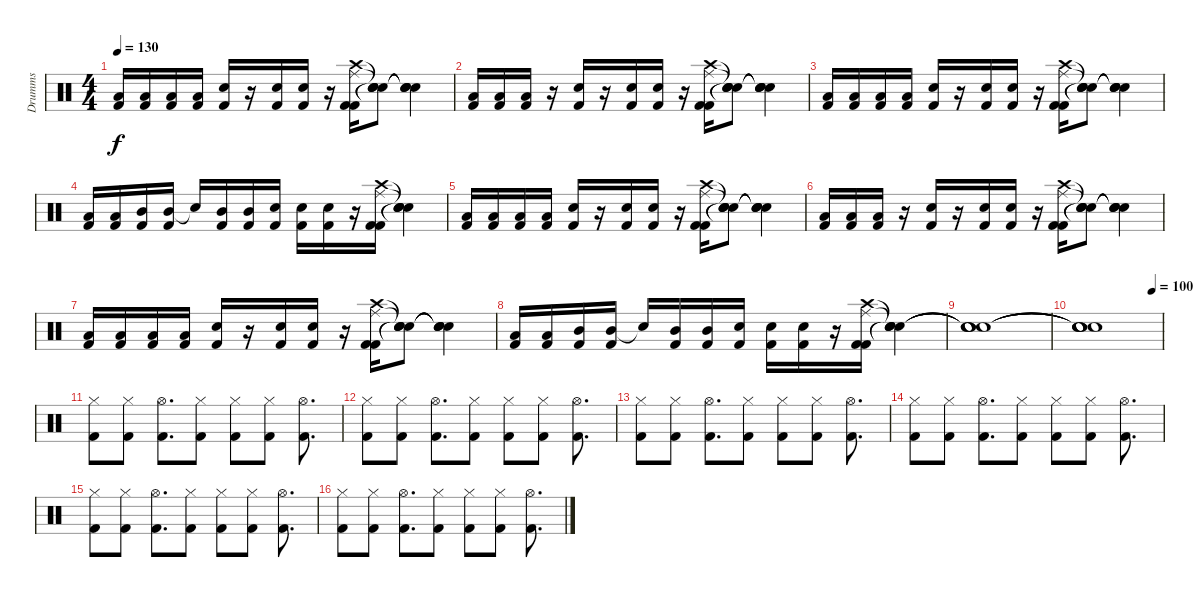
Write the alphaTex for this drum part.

\track ("Drumms" "Drumms") {instrument percussion}
\staff {score}
\articulation defaults
\ts (4 4)
\tempo 130
\clef neutral
\ks c
("Low Floor Tom (hit)" "Kick (hit) 2").16{dy f} ("Low Floor Tom (hit)" "Kick (hit) 2").16 ("Low Floor Tom (hit)" "Kick (hit) 2").16 ("Low Floor Tom (hit)" "Kick (hit) 2").16 ("Snare (hit) 2" "Kick (hit) 2").16 r.16 ("Snare (hit) 2" "Kick (hit) 2").16 ("Snare (hit) 2" "Kick (hit) 2").16 r.16 ("Crash high (hit)" "Ride (middle)" "Kick (hit) 2" "Kick (hit) 2").16 ("Snare (hit)"{t} "Snare (hit)"{t} "Snare (hit)"{t} "Snare (hit)"{t}).8 ("Snare (hit)"{t} "Snare (hit)"{t} "Snare (hit)"{t} "Snare (hit)"{t}).4 |
("Low Floor Tom (hit)" "Kick (hit) 2").16 ("Low Floor Tom (hit)" "Kick (hit) 2").16 ("Low Floor Tom (hit)" "Kick (hit) 2").16 r.16 ("Snare (hit) 2" "Kick (hit) 2").16 r.16 ("Snare (hit) 2" "Kick (hit) 2").16 ("Snare (hit) 2" "Kick (hit) 2").16 r.16 ("Crash high (hit)" "Ride (middle)" "Kick (hit) 2" "Kick (hit) 2").16 ("Snare (hit)"{t} "Snare (hit)"{t} "Snare (hit)"{t} "Snare (hit)"{t}).8 ("Snare (hit)"{t} "Snare (hit)"{t} "Snare (hit)"{t} "Snare (hit)"{t}).4 |
("Low Floor Tom (hit)" "Kick (hit) 2").16 ("Low Floor Tom (hit)" "Kick (hit) 2").16 ("Low Floor Tom (hit)" "Kick (hit) 2").16 ("Low Floor Tom (hit)" "Kick (hit) 2").16 ("Snare (hit) 2" "Kick (hit) 2").16 r.16 ("Snare (hit) 2" "Kick (hit) 2").16 ("Snare (hit) 2" "Kick (hit) 2").16 r.16 ("Crash high (hit)" "Ride (middle)" "Kick (hit) 2" "Kick (hit) 2").16 ("Snare (hit)"{t} "Snare (hit)"{t} "Snare (hit)"{t} "Snare (hit)"{t}).8 ("Snare (hit)"{t} "Snare (hit)"{t} "Snare (hit)"{t} "Snare (hit)"{t}).4 |
("Low Floor Tom (hit)" "Kick (hit) 2").16 ("Low Floor Tom (hit)" "Kick (hit) 2").16 ("Mid Tom (hit)" "Kick (hit) 2").16 ("Mid Tom (hit)" "Kick (hit) 2").16 "Snare (hit)"{t}.16 ("Mid Tom (hit)" "Kick (hit) 2").16 ("Mid Tom (hit)" "Kick (hit) 2").16 ("Snare (hit) 2" "Kick (hit) 2").16 ("Snare (hit) 2" "Kick (hit) 2").16 ("Snare (hit) 2" "Kick (hit) 2").16 r.16 ("Crash high (hit)" "Ride (middle)" "Kick (hit) 2" "Kick (hit) 2").16 ("Snare (hit)"{t} "Snare (hit)"{t} "Snare (hit)"{t} "Snare (hit)"{t}).4 |
("Low Floor Tom (hit)" "Kick (hit) 2").16 ("Low Floor Tom (hit)" "Kick (hit) 2").16 ("Low Floor Tom (hit)" "Kick (hit) 2").16 ("Low Floor Tom (hit)" "Kick (hit) 2").16 ("Snare (hit) 2" "Kick (hit) 2").16 r.16 ("Snare (hit) 2" "Kick (hit) 2").16 ("Snare (hit) 2" "Kick (hit) 2").16 r.16 ("Crash high (hit)" "Ride (middle)" "Kick (hit) 2" "Kick (hit) 2").16 ("Snare (hit)"{t} "Snare (hit)"{t} "Snare (hit)"{t} "Snare (hit)"{t}).8 ("Snare (hit)"{t} "Snare (hit)"{t} "Snare (hit)"{t} "Snare (hit)"{t}).4 |
("Low Floor Tom (hit)" "Kick (hit) 2").16 ("Low Floor Tom (hit)" "Kick (hit) 2").16 ("Low Floor Tom (hit)" "Kick (hit) 2").16 r.16 ("Snare (hit) 2" "Kick (hit) 2").16 r.16 ("Snare (hit) 2" "Kick (hit) 2").16 ("Snare (hit) 2" "Kick (hit) 2").16 r.16 ("Crash high (hit)" "Ride (middle)" "Kick (hit) 2" "Kick (hit) 2").16 ("Snare (hit)"{t} "Snare (hit)"{t} "Snare (hit)"{t} "Snare (hit)"{t}).8 ("Snare (hit)"{t} "Snare (hit)"{t} "Snare (hit)"{t} "Snare (hit)"{t}).4 |
("Low Floor Tom (hit)" "Kick (hit) 2").16 ("Low Floor Tom (hit)" "Kick (hit) 2").16 ("Low Floor Tom (hit)" "Kick (hit) 2").16 ("Low Floor Tom (hit)" "Kick (hit) 2").16 ("Snare (hit) 2" "Kick (hit) 2").16 r.16 ("Snare (hit) 2" "Kick (hit) 2").16 ("Snare (hit) 2" "Kick (hit) 2").16 r.16 ("Crash high (hit)" "Ride (middle)" "Kick (hit) 2" "Kick (hit) 2").16 ("Snare (hit)"{t} "Snare (hit)"{t} "Snare (hit)"{t} "Snare (hit)"{t}).8 ("Snare (hit)"{t} "Snare (hit)"{t} "Snare (hit)"{t} "Snare (hit)"{t}).4 |
("Low Floor Tom (hit)" "Kick (hit) 2").16 ("Low Floor Tom (hit)" "Kick (hit) 2").16 ("Mid Tom (hit)" "Kick (hit) 2").16 ("Mid Tom (hit)" "Kick (hit) 2").16 "Snare (hit)"{t}.16 ("Mid Tom (hit)" "Kick (hit) 2").16 ("Mid Tom (hit)" "Kick (hit) 2").16 ("Snare (hit) 2" "Kick (hit) 2").16 ("Snare (hit) 2" "Kick (hit) 2").16 ("Snare (hit) 2" "Kick (hit) 2").16 r.16 ("Crash high (hit)" "Ride (middle)" "Kick (hit) 2" "Kick (hit) 2").16 ("Snare (hit)"{t} "Snare (hit)"{t} "Snare (hit)"{t} "Snare (hit)"{t}).4 |
("Snare (hit)"{t} "Snare (hit)"{t} "Snare (hit)"{t} "Snare (hit)"{t}).1 |
\tempo (100 0.875)
("Snare (hit)"{t} "Snare (hit)"{t} "Snare (hit)"{t} "Snare (hit)"{t}).1 |
("Hi-Hat (closed)" "Kick (hit) 2").8 ("Hi-Hat (closed)" "Kick (hit) 2").8 ("Hi-Hat (open)" "Kick (hit) 2").8{d} ("Hi-Hat (closed)" "Kick (hit) 2").8 ("Hi-Hat (closed)" "Kick (hit) 2").8 ("Hi-Hat (closed)" "Kick (hit) 2").8 ("Hi-Hat (open)" "Kick (hit) 2").8{d} |
("Hi-Hat (closed)" "Kick (hit) 2").8 ("Hi-Hat (closed)" "Kick (hit) 2").8 ("Hi-Hat (open)" "Kick (hit) 2").8{d} ("Hi-Hat (closed)" "Kick (hit) 2").8 ("Hi-Hat (closed)" "Kick (hit) 2").8 ("Hi-Hat (closed)" "Kick (hit) 2").8 ("Hi-Hat (open)" "Kick (hit) 2").8{d} |
("Hi-Hat (closed)" "Kick (hit) 2").8 ("Hi-Hat (closed)" "Kick (hit) 2").8 ("Hi-Hat (open)" "Kick (hit) 2").8{d} ("Hi-Hat (closed)" "Kick (hit) 2").8 ("Hi-Hat (closed)" "Kick (hit) 2").8 ("Hi-Hat (closed)" "Kick (hit) 2").8 ("Hi-Hat (open)" "Kick (hit) 2").8{d} |
("Hi-Hat (closed)" "Kick (hit) 2").8 ("Hi-Hat (closed)" "Kick (hit) 2").8 ("Hi-Hat (open)" "Kick (hit) 2").8{d} ("Hi-Hat (closed)" "Kick (hit) 2").8 ("Hi-Hat (closed)" "Kick (hit) 2").8 ("Hi-Hat (closed)" "Kick (hit) 2").8 ("Hi-Hat (open)" "Kick (hit) 2").8{d} |
("Hi-Hat (closed)" "Kick (hit) 2").8 ("Hi-Hat (closed)" "Kick (hit) 2").8 ("Hi-Hat (open)" "Kick (hit) 2").8{d} ("Hi-Hat (closed)" "Kick (hit) 2").8 ("Hi-Hat (closed)" "Kick (hit) 2").8 ("Hi-Hat (closed)" "Kick (hit) 2").8 ("Hi-Hat (open)" "Kick (hit) 2").8{d} |
("Hi-Hat (closed)" "Kick (hit) 2").8 ("Hi-Hat (closed)" "Kick (hit) 2").8 ("Hi-Hat (open)" "Kick (hit) 2").8{d} ("Hi-Hat (closed)" "Kick (hit) 2").8 ("Hi-Hat (closed)" "Kick (hit) 2").8 ("Hi-Hat (closed)" "Kick (hit) 2").8 ("Hi-Hat (open)" "Kick (hit) 2").8{d}
